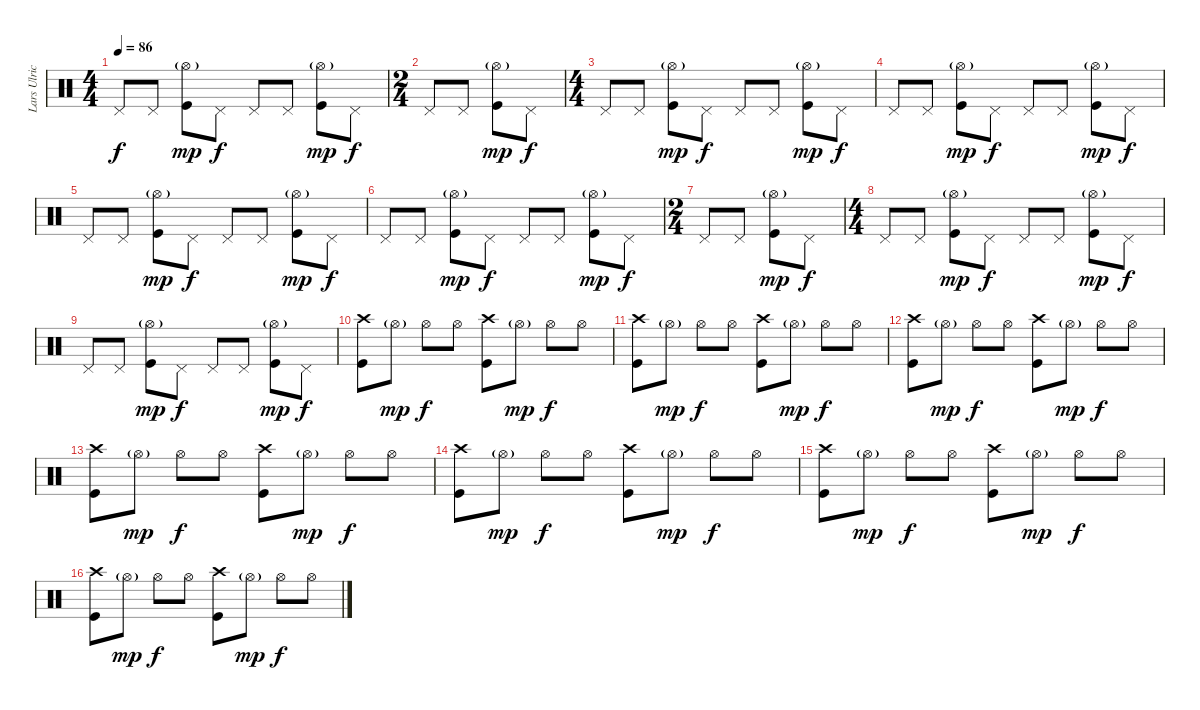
\track ("Lars Ulrich" "Lars Ulric") {instrument percussion}
\staff {score}
\articulation defaults
\ts (4 4)
\tempo 86
\clef neutral
\ks c "Pedal Hi-Hat (hit)".8{dy f} "Pedal Hi-Hat (hit)".8
("Hi-Hat (open)"{g} "Kick (hit)").8{dy mp} "Pedal Hi-Hat (hit)".8{dy f} "Pedal Hi-Hat (hit)".8 "Pedal Hi-Hat (hit)".8 ("Hi-Hat (open)"{g} "Kick (hit)").8{dy mp} "Pedal Hi-Hat (hit)".8{dy f} |
\ts (2 4)
"Pedal Hi-Hat (hit)".8 "Pedal Hi-Hat (hit)".8 ("Hi-Hat (open)"{g} "Kick (hit)").8{dy mp} "Pedal Hi-Hat (hit)".8{dy f} |
\ts (4 4)
"Pedal Hi-Hat (hit)".8 "Pedal Hi-Hat (hit)".8 ("Hi-Hat (open)"{g} "Kick (hit)").8{dy mp} "Pedal Hi-Hat (hit)".8{dy f} "Pedal Hi-Hat (hit)".8 "Pedal Hi-Hat (hit)".8 ("Hi-Hat (open)"{g} "Kick (hit)").8{dy mp} "Pedal Hi-Hat (hit)".8{dy f} |
"Pedal Hi-Hat (hit)".8 "Pedal Hi-Hat (hit)".8 ("Hi-Hat (open)"{g} "Kick (hit)").8{dy mp} "Pedal Hi-Hat (hit)".8{dy f} "Pedal Hi-Hat (hit)".8 "Pedal Hi-Hat (hit)".8 ("Hi-Hat (open)"{g} "Kick (hit)").8{dy mp} "Pedal Hi-Hat (hit)".8{dy f} |
"Pedal Hi-Hat (hit)".8 "Pedal Hi-Hat (hit)".8 ("Hi-Hat (open)"{g} "Kick (hit)").8{dy mp} "Pedal Hi-Hat (hit)".8{dy f} "Pedal Hi-Hat (hit)".8 "Pedal Hi-Hat (hit)".8 ("Hi-Hat (open)"{g} "Kick (hit)").8{dy mp} "Pedal Hi-Hat (hit)".8{dy f} |
"Pedal Hi-Hat (hit)".8 "Pedal Hi-Hat (hit)".8 ("Hi-Hat (open)"{g} "Kick (hit)").8{dy mp} "Pedal Hi-Hat (hit)".8{dy f} "Pedal Hi-Hat (hit)".8 "Pedal Hi-Hat (hit)".8 ("Hi-Hat (open)"{g} "Kick (hit)").8{dy mp} "Pedal Hi-Hat (hit)".8{dy f} |
\ts (2 4)
"Pedal Hi-Hat (hit)".8 "Pedal Hi-Hat (hit)".8 ("Hi-Hat (open)"{g} "Kick (hit)").8{dy mp} "Pedal Hi-Hat (hit)".8{dy f} |
\ts (4 4)
"Pedal Hi-Hat (hit)".8 "Pedal Hi-Hat (hit)".8 ("Hi-Hat (open)"{g} "Kick (hit)").8{dy mp} "Pedal Hi-Hat (hit)".8{dy f} "Pedal Hi-Hat (hit)".8 "Pedal Hi-Hat (hit)".8 ("Hi-Hat (open)"{g} "Kick (hit)").8{dy mp} "Pedal Hi-Hat (hit)".8{dy f} |
"Pedal Hi-Hat (hit)".8 "Pedal Hi-Hat (hit)".8 ("Hi-Hat (open)"{g} "Kick (hit)").8{dy mp} "Pedal Hi-Hat (hit)".8{dy f} "Pedal Hi-Hat (hit)".8 "Pedal Hi-Hat (hit)".8 ("Hi-Hat (open)"{g} "Kick (hit)").8{dy mp} "Pedal Hi-Hat (hit)".8{dy f} |
("Crash high (hit)" "Kick (hit)").8 "Hi-Hat (open)"{g}.8{dy mp} "Hi-Hat (open)".8{dy f} "Hi-Hat (open)".8 ("Crash high (hit)" "Kick (hit)").8 "Hi-Hat (open)"{g}.8{dy mp} "Hi-Hat (open)".8{dy f} "Hi-Hat (open)".8 |
("Crash high (hit)" "Kick (hit)").8 "Hi-Hat (open)"{g}.8{dy mp} "Hi-Hat (open)".8{dy f} "Hi-Hat (open)".8 ("Crash high (hit)" "Kick (hit)").8 "Hi-Hat (open)"{g}.8{dy mp} "Hi-Hat (open)".8{dy f} "Hi-Hat (open)".8 |
("Crash high (hit)" "Kick (hit)").8 "Hi-Hat (open)"{g}.8{dy mp} "Hi-Hat (open)".8{dy f} "Hi-Hat (open)".8 ("Crash high (hit)" "Kick (hit)").8 "Hi-Hat (open)"{g}.8{dy mp} "Hi-Hat (open)".8{dy f} "Hi-Hat (open)".8 |
("Crash high (hit)" "Kick (hit)").8 "Hi-Hat (open)"{g}.8{dy mp} "Hi-Hat (open)".8{dy f} "Hi-Hat (open)".8 ("Crash high (hit)" "Kick (hit)").8 "Hi-Hat (open)"{g}.8{dy mp} "Hi-Hat (open)".8{dy f} "Hi-Hat (open)".8 |
("Crash high (hit)" "Kick (hit)").8 "Hi-Hat (open)"{g}.8{dy mp} "Hi-Hat (open)".8{dy f} "Hi-Hat (open)".8 ("Crash high (hit)" "Kick (hit)").8 "Hi-Hat (open)"{g}.8{dy mp} "Hi-Hat (open)".8{dy f} "Hi-Hat (open)".8 |
("Crash high (hit)" "Kick (hit)").8 "Hi-Hat (open)"{g}.8{dy mp} "Hi-Hat (open)".8{dy f} "Hi-Hat (open)".8 ("Crash high (hit)" "Kick (hit)").8 "Hi-Hat (open)"{g}.8{dy mp} "Hi-Hat (open)".8{dy f} "Hi-Hat (open)".8 |
("Crash high (hit)" "Kick (hit)").8 "Hi-Hat (open)"{g}.8{dy mp} "Hi-Hat (open)".8{dy f} "Hi-Hat (open)".8 ("Crash high (hit)" "Kick (hit)").8 "Hi-Hat (open)"{g}.8{dy mp} "Hi-Hat (open)".8{dy f} "Hi-Hat (open)".8
